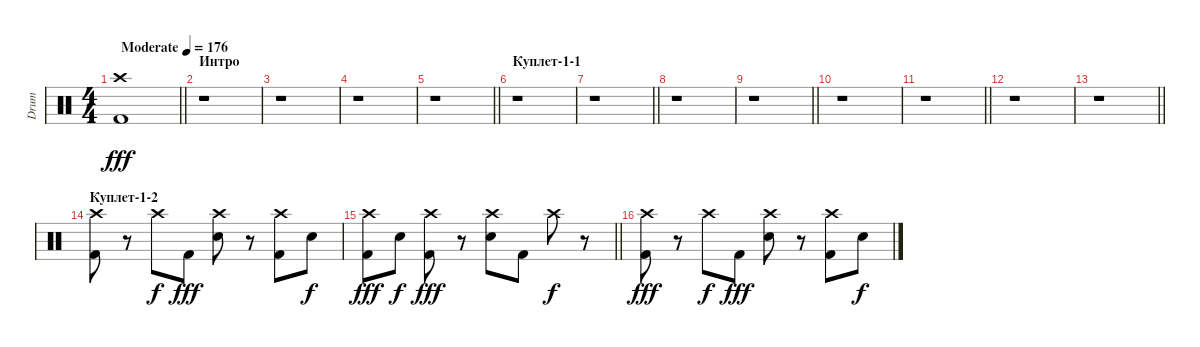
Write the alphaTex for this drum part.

\track ("Drum" "Drum") {instrument percussion}
\staff {score}
\articulation defaults
\ts (4 4)
\tempo (176 "Moderate")
\clef neutral
\barLineRight lightlight
\ks c
("Crash high (hit)" "Kick (hit) 2").1{dy fff} |
\section ("" "Интро")
r.1 |
r.1 |
r.1 |
\barLineRight lightlight
r.1 |
\section ("" "Куплет-1-1")
r.1 |
\barLineRight lightlight
r.1 |
r.1 |
\barLineRight lightlight
r.1 |
r.1 |
\barLineRight lightlight
r.1 |
r.1 |
\barLineRight lightlight
r.1 |
\section ("" "Куплет-1-2")
("Kick (hit) 2" "Crash high (hit)").8 r.8 "Crash high (hit)".8{dy f} "Kick (hit) 2".8{dy fff} ("Snare (hit) 2" "Crash high (hit)").8 r.8 ("Kick (hit) 2" "Crash high (hit)").8 "Electric Snare (hit)".8{dy f} |
\barLineRight lightlight
("Kick (hit) 2" "Crash high (hit)").8{dy fff} "Electric Snare (hit)".8{dy f} ("Kick (hit) 2" "Crash high (hit)").8{dy fff} r.8 ("Snare (hit) 2" "Crash high (hit)").8 "Kick (hit) 2".8 "Crash high (hit)".8{dy f} r.8 |
("Kick (hit) 2" "Crash high (hit)").8{dy fff} r.8 "Crash high (hit)".8{dy f} "Kick (hit) 2".8{dy fff} ("Snare (hit) 2" "Crash high (hit)").8 r.8 ("Kick (hit) 2" "Crash high (hit)").8 "Electric Snare (hit)".8{dy f}
